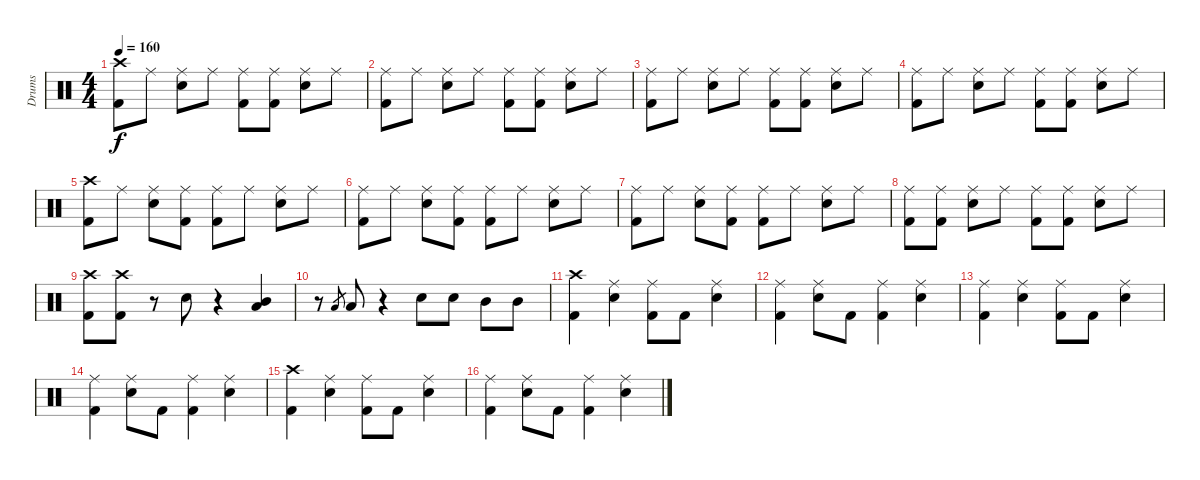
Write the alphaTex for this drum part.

\track ("Drums" "Drums") {instrument percussion}
\staff {score}
\articulation defaults
\ts (4 4)
\tempo 160
\clef neutral
\ks c
("Crash high (hit)" "Kick (hit) 2").8{dy f} "Ride (middle)".8 ("Ride (middle)" "Electric Snare (hit)").8 "Ride (middle)".8 ("Ride (middle)" "Kick (hit) 2").8 ("Ride (middle)" "Kick (hit) 2").8 ("Ride (middle)" "Electric Snare (hit)").8 "Ride (middle)".8 |
("Ride (middle)" "Kick (hit) 2").8 "Ride (middle)".8 ("Ride (middle)" "Electric Snare (hit)").8 "Ride (middle)".8 ("Ride (middle)" "Kick (hit) 2").8 ("Ride (middle)" "Kick (hit) 2").8 ("Ride (middle)" "Electric Snare (hit)").8 "Ride (middle)".8 |
("Ride (middle)" "Kick (hit) 2").8 "Ride (middle)".8 ("Ride (middle)" "Electric Snare (hit)").8 "Ride (middle)".8 ("Ride (middle)" "Kick (hit) 2").8 ("Ride (middle)" "Kick (hit) 2").8 ("Ride (middle)" "Electric Snare (hit)").8 "Ride (middle)".8 |
("Ride (middle)" "Kick (hit) 2").8 "Ride (middle)".8 ("Ride (middle)" "Electric Snare (hit)").8 "Ride (middle)".8 ("Ride (middle)" "Kick (hit) 2").8 ("Ride (middle)" "Kick (hit) 2").8 ("Ride (middle)" "Electric Snare (hit)").8 "Ride (middle)".8 |
("Crash high (hit)" "Kick (hit) 2").8 "Ride (middle)".8 ("Ride (middle)" "Electric Snare (hit)").8 ("Ride (middle)" "Kick (hit) 2").8 ("Ride (middle)" "Kick (hit) 2").8 "Ride (middle)".8 ("Ride (middle)" "Electric Snare (hit)").8 "Ride (middle)".8 |
("Ride (middle)" "Kick (hit) 2").8 "Ride (middle)".8 ("Ride (middle)" "Electric Snare (hit)").8 ("Ride (middle)" "Kick (hit) 2").8 ("Ride (middle)" "Kick (hit) 2").8 "Ride (middle)".8 ("Ride (middle)" "Electric Snare (hit)").8 "Ride (middle)".8 |
("Ride (middle)" "Kick (hit) 2").8 "Ride (middle)".8 ("Ride (middle)" "Electric Snare (hit)").8 ("Ride (middle)" "Kick (hit) 2").8 ("Ride (middle)" "Kick (hit) 2").8 "Ride (middle)".8 ("Ride (middle)" "Electric Snare (hit)").8 "Ride (middle)".8 |
("Ride (middle)" "Kick (hit) 2").8 ("Ride (middle)" "Kick (hit) 2").8 ("Ride (middle)" "Electric Snare (hit)").8 "Ride (middle)".8 ("Ride (middle)" "Kick (hit) 2").8 ("Ride (middle)" "Kick (hit) 2").8 ("Ride (middle)" "Electric Snare (hit)").8 "Ride (middle)".8 |
("Crash high (hit)" "Kick (hit) 2").8 ("Crash high (hit)" "Kick (hit) 2").8 r.8 "Electric Snare (hit)".8 r.4 ("Mid Tom (hit)" "Low Tom (hit)").4 |
r.8 "Low Tom (hit)".8{gr} "Low Tom (hit)".8 r.4 "Electric Snare (hit)".8 "Electric Snare (hit)".8 "Mid Tom (hit)".8 "Mid Tom (hit)".8 |
("Crash high (hit)" "Kick (hit) 2").4 ("Ride (middle)" "Electric Snare (hit)").4 ("Ride (middle)" "Kick (hit) 2").8 "Kick (hit) 2".8 ("Ride (middle)" "Electric Snare (hit)").4 |
("Ride (middle)" "Kick (hit) 2").4 ("Ride (middle)" "Electric Snare (hit)").8 "Kick (hit) 2".8 ("Ride (middle)" "Kick (hit) 2").4 ("Ride (middle)" "Electric Snare (hit)").4 |
("Ride (middle)" "Kick (hit) 2").4 ("Ride (middle)" "Electric Snare (hit)").4 ("Ride (middle)" "Kick (hit) 2").8 "Kick (hit) 2".8 ("Ride (middle)" "Electric Snare (hit)").4 |
("Ride (middle)" "Kick (hit) 2").4 ("Ride (middle)" "Electric Snare (hit)").8 "Kick (hit) 2".8 ("Ride (middle)" "Kick (hit) 2").4 ("Ride (middle)" "Electric Snare (hit)").4 |
("Crash high (hit)" "Kick (hit) 2").4 ("Ride (middle)" "Electric Snare (hit)").4 ("Ride (middle)" "Kick (hit) 2").8 "Kick (hit) 2".8 ("Ride (middle)" "Electric Snare (hit)").4 |
("Ride (middle)" "Kick (hit) 2").4 ("Ride (middle)" "Electric Snare (hit)").8 "Kick (hit) 2".8 ("Ride (middle)" "Kick (hit) 2").4 ("Ride (middle)" "Electric Snare (hit)").4
